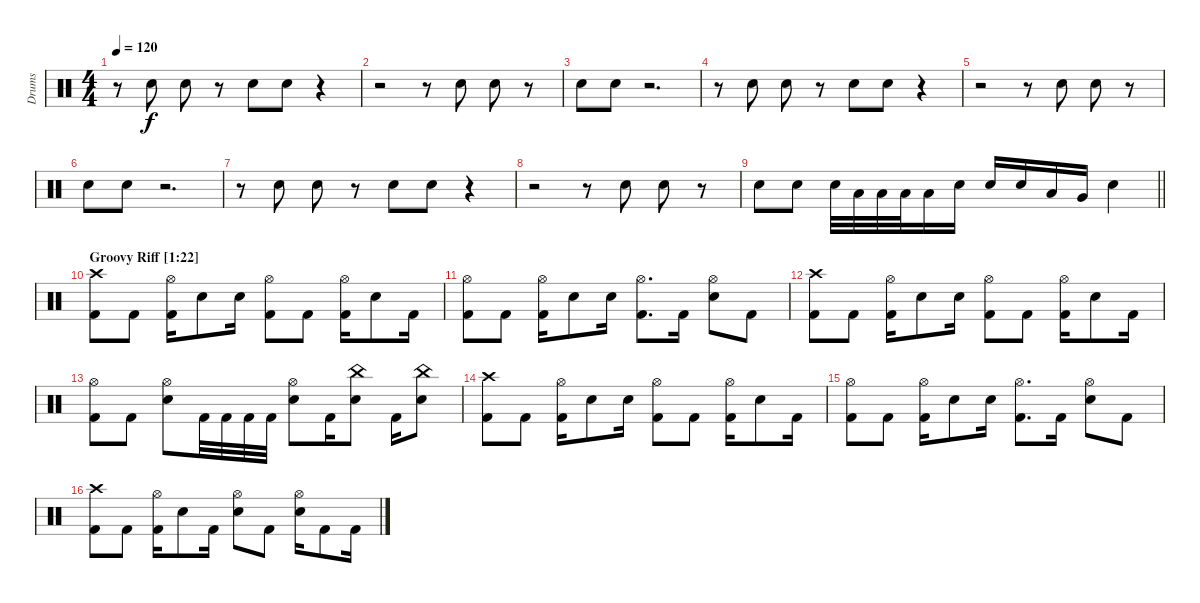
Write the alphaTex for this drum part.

\track ("Drums" "Drums") {instrument percussion}
\staff {score}
\articulation defaults
\ts (4 4)
\tempo 120
\clef neutral
\ks c
r.8{dy f} "Snare (hit) 2".8 "Snare (hit) 2".8 r.8 "Snare (hit) 2".8 "Snare (hit) 2".8 r.4 |
r.2 r.8 "Snare (hit) 2".8 "Snare (hit) 2".8 r.8 |
"Snare (hit) 2".8 "Snare (hit) 2".8 r.2{d} |
r.8 "Snare (hit) 2".8 "Snare (hit) 2".8 r.8 "Snare (hit) 2".8 "Snare (hit) 2".8 r.4 |
r.2 r.8 "Snare (hit) 2".8 "Snare (hit) 2".8 r.8 |
"Snare (hit) 2".8 "Snare (hit) 2".8 r.2{d} |
r.8 "Snare (hit) 2".8 "Snare (hit) 2".8 r.8 "Snare (hit) 2".8 "Snare (hit) 2".8 r.4 |
r.2 r.8 "Snare (hit) 2".8 "Snare (hit) 2".8 r.8 |
\barLineRight lightlight "Snare (hit) 2".8 "Snare (hit) 2".8 "Snare (hit) 2".32{volume 16} "Low Tom (hit)".32 "Low Tom (hit)".32 "Low Tom (hit)".32 "Low Tom (hit)".16 "Snare (hit) 2".16 "Snare (hit) 2".16 "Snare (hit) 2".16 "Low Tom (hit)".16 "Very Low Tom (hit)".16 "Snare (hit) 2".4
|
\section ("" "Groovy Riff [1:22]")
("Crash high (hit)" "Kick (hit) 2").8 "Kick (hit) 2".8 ("Hi-Hat (open)" "Kick (hit) 2").16 "Snare (hit) 2".8 "Snare (hit) 2".16 ("Hi-Hat (open)" "Kick (hit) 2").8 "Kick (hit) 2".8 ("Hi-Hat (open)" "Kick (hit) 2").16 "Snare (hit) 2".8 "Kick (hit) 2".16 |
("Hi-Hat (open)" "Kick (hit) 2").8 "Kick (hit) 2".8 ("Hi-Hat (open)" "Kick (hit) 2").16 "Snare (hit) 2".8 "Snare (hit) 2".16 ("Hi-Hat (open)" "Kick (hit) 2").8{d} "Kick (hit) 2".16 ("Hi-Hat (open)" "Snare (hit) 2").8 "Kick (hit) 2".8 |
("Crash high (hit)" "Kick (hit) 2").8 "Kick (hit) 2".8 ("Hi-Hat (open)" "Kick (hit) 2").16 "Snare (hit) 2".8 "Snare (hit) 2".16 ("Hi-Hat (open)" "Kick (hit) 2").8 "Kick (hit) 2".8 ("Hi-Hat (open)" "Kick (hit) 2").16 "Snare (hit) 2".8 "Kick (hit) 2".16 |
("Hi-Hat (open)" "Kick (hit) 2").8 "Kick (hit) 2".8 ("Hi-Hat (open)" "Snare (hit) 2").8 "Kick (hit) 2".32 "Kick (hit) 2".32 "Kick (hit) 2".32 "Kick (hit) 2".32 ("Hi-Hat (open)" "Snare (hit) 2").8 "Kick (hit) 2".16 ("China (hit)" "Snare (hit) 2").8 "Kick (hit) 2".16 ("China (hit)" "Snare (hit) 2").8 |
("Crash high (hit)" "Kick (hit) 2").8 "Kick (hit) 2".8 ("Hi-Hat (open)" "Kick (hit) 2").16 "Snare (hit) 2".8 "Snare (hit) 2".16 ("Hi-Hat (open)" "Kick (hit) 2").8 "Kick (hit) 2".8 ("Hi-Hat (open)" "Kick (hit) 2").16 "Snare (hit) 2".8 "Kick (hit) 2".16 |
("Hi-Hat (open)" "Kick (hit) 2").8 "Kick (hit) 2".8 ("Hi-Hat (open)" "Kick (hit) 2").16 "Snare (hit) 2".8 "Snare (hit) 2".16 ("Hi-Hat (open)" "Kick (hit) 2").8{d} "Kick (hit) 2".16 ("Hi-Hat (open)" "Snare (hit) 2").8 "Kick (hit) 2".8 |
("Crash high (hit)" "Kick (hit) 2").8 "Kick (hit) 2".8 ("Hi-Hat (open)" "Kick (hit) 2").16 "Snare (hit) 2".8 "Kick (hit) 2".16 ("Hi-Hat (open)" "Snare (hit) 2").8 "Kick (hit) 2".8 ("Hi-Hat (open)" "Snare (hit) 2").16 "Kick (hit) 2".8 "Kick (hit) 2".16
